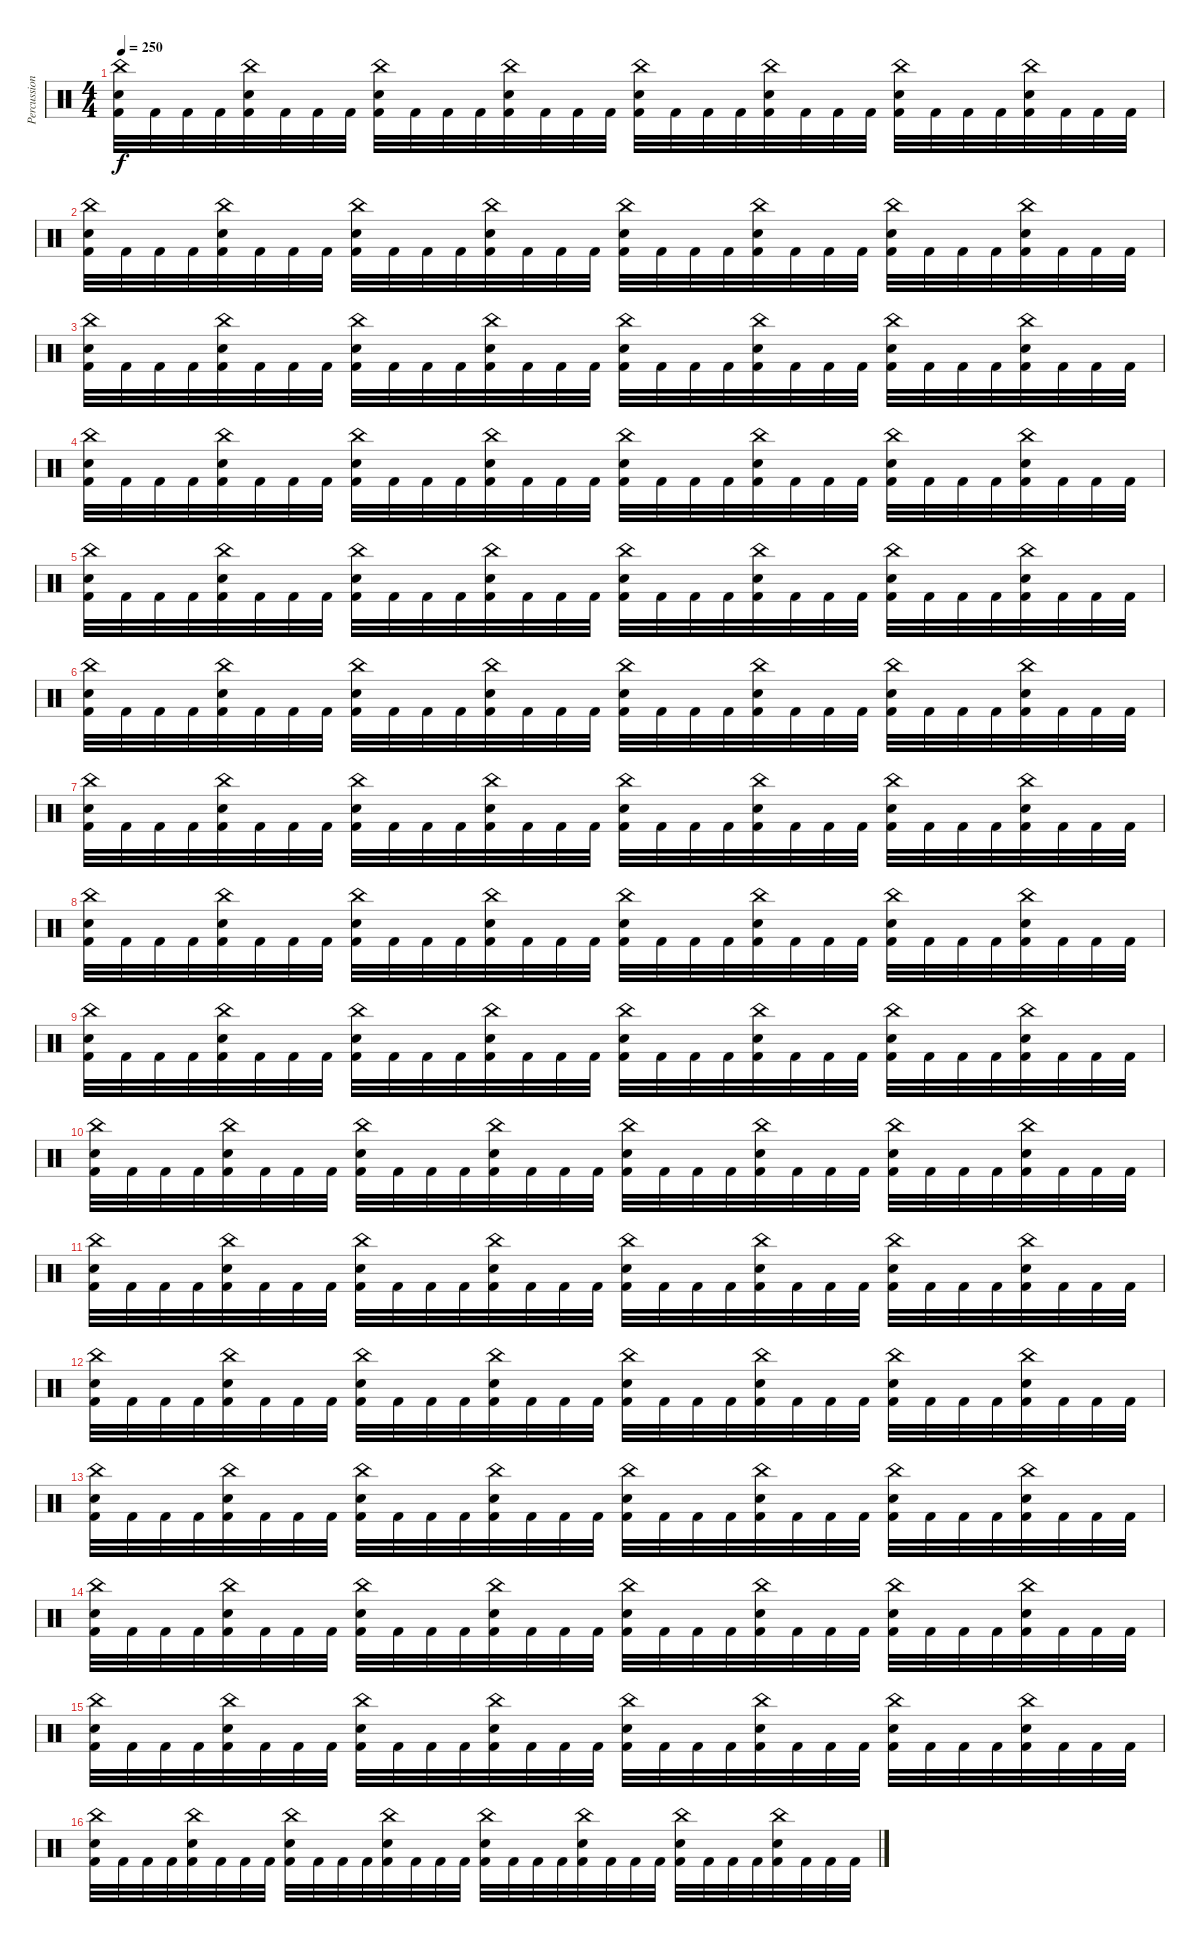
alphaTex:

\track ("Percussions" "Percussion") {instrument percussion}
\staff {score}
\articulation defaults
\ts (4 4)
\tempo 250
\clef neutral
\ks c
("China (hit)" "Electric Snare (hit)" "Kick (hit) 2").32{dy f} "Kick (hit) 2".32 "Kick (hit) 2".32 "Kick (hit) 2".32 ("China (hit)" "Electric Snare (hit)" "Kick (hit) 2").32 "Kick (hit) 2".32 "Kick (hit) 2".32 "Kick (hit) 2".32 ("China (hit)" "Electric Snare (hit)" "Kick (hit) 2").32 "Kick (hit) 2".32 "Kick (hit) 2".32 "Kick (hit) 2".32 ("China (hit)" "Electric Snare (hit)" "Kick (hit) 2").32 "Kick (hit) 2".32 "Kick (hit) 2".32 "Kick (hit) 2".32 ("China (hit)" "Electric Snare (hit)" "Kick (hit) 2").32 "Kick (hit) 2".32 "Kick (hit) 2".32 "Kick (hit) 2".32 ("China (hit)" "Electric Snare (hit)" "Kick (hit) 2").32 "Kick (hit) 2".32 "Kick (hit) 2".32 "Kick (hit) 2".32 ("China (hit)" "Electric Snare (hit)" "Kick (hit) 2").32 "Kick (hit) 2".32 "Kick (hit) 2".32 "Kick (hit) 2".32 ("China (hit)" "Electric Snare (hit)" "Kick (hit) 2").32 "Kick (hit) 2".32 "Kick (hit) 2".32 "Kick (hit) 2".32 |
("China (hit)" "Electric Snare (hit)" "Kick (hit) 2").32 "Kick (hit) 2".32 "Kick (hit) 2".32 "Kick (hit) 2".32 ("China (hit)" "Electric Snare (hit)" "Kick (hit) 2").32 "Kick (hit) 2".32 "Kick (hit) 2".32 "Kick (hit) 2".32 ("China (hit)" "Electric Snare (hit)" "Kick (hit) 2").32 "Kick (hit) 2".32 "Kick (hit) 2".32 "Kick (hit) 2".32 ("China (hit)" "Electric Snare (hit)" "Kick (hit) 2").32 "Kick (hit) 2".32 "Kick (hit) 2".32 "Kick (hit) 2".32 ("China (hit)" "Electric Snare (hit)" "Kick (hit) 2").32 "Kick (hit) 2".32 "Kick (hit) 2".32 "Kick (hit) 2".32 ("China (hit)" "Electric Snare (hit)" "Kick (hit) 2").32 "Kick (hit) 2".32 "Kick (hit) 2".32 "Kick (hit) 2".32 ("China (hit)" "Electric Snare (hit)" "Kick (hit) 2").32 "Kick (hit) 2".32 "Kick (hit) 2".32 "Kick (hit) 2".32 ("China (hit)" "Electric Snare (hit)" "Kick (hit) 2").32 "Kick (hit) 2".32 "Kick (hit) 2".32 "Kick (hit) 2".32 |
("China (hit)" "Electric Snare (hit)" "Kick (hit) 2").32 "Kick (hit) 2".32 "Kick (hit) 2".32 "Kick (hit) 2".32 ("China (hit)" "Electric Snare (hit)" "Kick (hit) 2").32 "Kick (hit) 2".32 "Kick (hit) 2".32 "Kick (hit) 2".32 ("China (hit)" "Electric Snare (hit)" "Kick (hit) 2").32 "Kick (hit) 2".32 "Kick (hit) 2".32 "Kick (hit) 2".32 ("China (hit)" "Electric Snare (hit)" "Kick (hit) 2").32 "Kick (hit) 2".32 "Kick (hit) 2".32 "Kick (hit) 2".32 ("China (hit)" "Electric Snare (hit)" "Kick (hit) 2").32 "Kick (hit) 2".32 "Kick (hit) 2".32 "Kick (hit) 2".32 ("China (hit)" "Electric Snare (hit)" "Kick (hit) 2").32 "Kick (hit) 2".32 "Kick (hit) 2".32 "Kick (hit) 2".32 ("China (hit)" "Electric Snare (hit)" "Kick (hit) 2").32 "Kick (hit) 2".32 "Kick (hit) 2".32 "Kick (hit) 2".32 ("China (hit)" "Electric Snare (hit)" "Kick (hit) 2").32 "Kick (hit) 2".32 "Kick (hit) 2".32 "Kick (hit) 2".32 |
("China (hit)" "Electric Snare (hit)" "Kick (hit) 2").32 "Kick (hit) 2".32 "Kick (hit) 2".32 "Kick (hit) 2".32 ("China (hit)" "Electric Snare (hit)" "Kick (hit) 2").32 "Kick (hit) 2".32 "Kick (hit) 2".32 "Kick (hit) 2".32 ("China (hit)" "Electric Snare (hit)" "Kick (hit) 2").32 "Kick (hit) 2".32 "Kick (hit) 2".32 "Kick (hit) 2".32 ("China (hit)" "Electric Snare (hit)" "Kick (hit) 2").32 "Kick (hit) 2".32 "Kick (hit) 2".32 "Kick (hit) 2".32 ("China (hit)" "Electric Snare (hit)" "Kick (hit) 2").32 "Kick (hit) 2".32 "Kick (hit) 2".32 "Kick (hit) 2".32 ("China (hit)" "Electric Snare (hit)" "Kick (hit) 2").32 "Kick (hit) 2".32 "Kick (hit) 2".32 "Kick (hit) 2".32 ("China (hit)" "Electric Snare (hit)" "Kick (hit) 2").32 "Kick (hit) 2".32 "Kick (hit) 2".32 "Kick (hit) 2".32 ("China (hit)" "Electric Snare (hit)" "Kick (hit) 2").32 "Kick (hit) 2".32 "Kick (hit) 2".32 "Kick (hit) 2".32 |
("China (hit)" "Electric Snare (hit)" "Kick (hit) 2").32 "Kick (hit) 2".32 "Kick (hit) 2".32 "Kick (hit) 2".32 ("China (hit)" "Electric Snare (hit)" "Kick (hit) 2").32 "Kick (hit) 2".32 "Kick (hit) 2".32 "Kick (hit) 2".32 ("China (hit)" "Electric Snare (hit)" "Kick (hit) 2").32 "Kick (hit) 2".32 "Kick (hit) 2".32 "Kick (hit) 2".32 ("China (hit)" "Electric Snare (hit)" "Kick (hit) 2").32 "Kick (hit) 2".32 "Kick (hit) 2".32 "Kick (hit) 2".32 ("China (hit)" "Electric Snare (hit)" "Kick (hit) 2").32 "Kick (hit) 2".32 "Kick (hit) 2".32 "Kick (hit) 2".32 ("China (hit)" "Electric Snare (hit)" "Kick (hit) 2").32 "Kick (hit) 2".32 "Kick (hit) 2".32 "Kick (hit) 2".32 ("China (hit)" "Electric Snare (hit)" "Kick (hit) 2").32 "Kick (hit) 2".32 "Kick (hit) 2".32 "Kick (hit) 2".32 ("China (hit)" "Electric Snare (hit)" "Kick (hit) 2").32 "Kick (hit) 2".32 "Kick (hit) 2".32 "Kick (hit) 2".32 |
("China (hit)" "Electric Snare (hit)" "Kick (hit) 2").32 "Kick (hit) 2".32 "Kick (hit) 2".32 "Kick (hit) 2".32 ("China (hit)" "Electric Snare (hit)" "Kick (hit) 2").32 "Kick (hit) 2".32 "Kick (hit) 2".32 "Kick (hit) 2".32 ("China (hit)" "Electric Snare (hit)" "Kick (hit) 2").32 "Kick (hit) 2".32 "Kick (hit) 2".32 "Kick (hit) 2".32 ("China (hit)" "Electric Snare (hit)" "Kick (hit) 2").32 "Kick (hit) 2".32 "Kick (hit) 2".32 "Kick (hit) 2".32 ("China (hit)" "Electric Snare (hit)" "Kick (hit) 2").32 "Kick (hit) 2".32 "Kick (hit) 2".32 "Kick (hit) 2".32 ("China (hit)" "Electric Snare (hit)" "Kick (hit) 2").32 "Kick (hit) 2".32 "Kick (hit) 2".32 "Kick (hit) 2".32 ("China (hit)" "Electric Snare (hit)" "Kick (hit) 2").32 "Kick (hit) 2".32 "Kick (hit) 2".32 "Kick (hit) 2".32 ("China (hit)" "Electric Snare (hit)" "Kick (hit) 2").32 "Kick (hit) 2".32 "Kick (hit) 2".32 "Kick (hit) 2".32 |
("China (hit)" "Electric Snare (hit)" "Kick (hit) 2").32 "Kick (hit) 2".32 "Kick (hit) 2".32 "Kick (hit) 2".32 ("China (hit)" "Electric Snare (hit)" "Kick (hit) 2").32 "Kick (hit) 2".32 "Kick (hit) 2".32 "Kick (hit) 2".32 ("China (hit)" "Electric Snare (hit)" "Kick (hit) 2").32 "Kick (hit) 2".32 "Kick (hit) 2".32 "Kick (hit) 2".32 ("China (hit)" "Electric Snare (hit)" "Kick (hit) 2").32 "Kick (hit) 2".32 "Kick (hit) 2".32 "Kick (hit) 2".32 ("China (hit)" "Electric Snare (hit)" "Kick (hit) 2").32 "Kick (hit) 2".32 "Kick (hit) 2".32 "Kick (hit) 2".32 ("China (hit)" "Electric Snare (hit)" "Kick (hit) 2").32 "Kick (hit) 2".32 "Kick (hit) 2".32 "Kick (hit) 2".32 ("China (hit)" "Electric Snare (hit)" "Kick (hit) 2").32 "Kick (hit) 2".32 "Kick (hit) 2".32 "Kick (hit) 2".32 ("China (hit)" "Electric Snare (hit)" "Kick (hit) 2").32 "Kick (hit) 2".32 "Kick (hit) 2".32 "Kick (hit) 2".32 |
("China (hit)" "Electric Snare (hit)" "Kick (hit) 2").32 "Kick (hit) 2".32 "Kick (hit) 2".32 "Kick (hit) 2".32 ("China (hit)" "Electric Snare (hit)" "Kick (hit) 2").32 "Kick (hit) 2".32 "Kick (hit) 2".32 "Kick (hit) 2".32 ("China (hit)" "Electric Snare (hit)" "Kick (hit) 2").32 "Kick (hit) 2".32 "Kick (hit) 2".32 "Kick (hit) 2".32 ("China (hit)" "Electric Snare (hit)" "Kick (hit) 2").32 "Kick (hit) 2".32 "Kick (hit) 2".32 "Kick (hit) 2".32 ("China (hit)" "Electric Snare (hit)" "Kick (hit) 2").32 "Kick (hit) 2".32 "Kick (hit) 2".32 "Kick (hit) 2".32 ("China (hit)" "Electric Snare (hit)" "Kick (hit) 2").32 "Kick (hit) 2".32 "Kick (hit) 2".32 "Kick (hit) 2".32 ("China (hit)" "Electric Snare (hit)" "Kick (hit) 2").32 "Kick (hit) 2".32 "Kick (hit) 2".32 "Kick (hit) 2".32 ("China (hit)" "Electric Snare (hit)" "Kick (hit) 2").32 "Kick (hit) 2".32 "Kick (hit) 2".32 "Kick (hit) 2".32 |
("China (hit)" "Electric Snare (hit)" "Kick (hit) 2").32 "Kick (hit) 2".32 "Kick (hit) 2".32 "Kick (hit) 2".32 ("China (hit)" "Electric Snare (hit)" "Kick (hit) 2").32 "Kick (hit) 2".32 "Kick (hit) 2".32 "Kick (hit) 2".32 ("China (hit)" "Electric Snare (hit)" "Kick (hit) 2").32 "Kick (hit) 2".32 "Kick (hit) 2".32 "Kick (hit) 2".32 ("China (hit)" "Electric Snare (hit)" "Kick (hit) 2").32 "Kick (hit) 2".32 "Kick (hit) 2".32 "Kick (hit) 2".32 ("China (hit)" "Electric Snare (hit)" "Kick (hit) 2").32 "Kick (hit) 2".32 "Kick (hit) 2".32 "Kick (hit) 2".32 ("China (hit)" "Electric Snare (hit)" "Kick (hit) 2").32 "Kick (hit) 2".32 "Kick (hit) 2".32 "Kick (hit) 2".32 ("China (hit)" "Electric Snare (hit)" "Kick (hit) 2").32 "Kick (hit) 2".32 "Kick (hit) 2".32 "Kick (hit) 2".32 ("China (hit)" "Electric Snare (hit)" "Kick (hit) 2").32 "Kick (hit) 2".32 "Kick (hit) 2".32 "Kick (hit) 2".32 |
("China (hit)" "Electric Snare (hit)" "Kick (hit) 2").32 "Kick (hit) 2".32 "Kick (hit) 2".32 "Kick (hit) 2".32 ("China (hit)" "Electric Snare (hit)" "Kick (hit) 2").32 "Kick (hit) 2".32 "Kick (hit) 2".32 "Kick (hit) 2".32 ("China (hit)" "Electric Snare (hit)" "Kick (hit) 2").32 "Kick (hit) 2".32 "Kick (hit) 2".32 "Kick (hit) 2".32 ("China (hit)" "Electric Snare (hit)" "Kick (hit) 2").32 "Kick (hit) 2".32 "Kick (hit) 2".32 "Kick (hit) 2".32 ("China (hit)" "Electric Snare (hit)" "Kick (hit) 2").32 "Kick (hit) 2".32 "Kick (hit) 2".32 "Kick (hit) 2".32 ("China (hit)" "Electric Snare (hit)" "Kick (hit) 2").32 "Kick (hit) 2".32 "Kick (hit) 2".32 "Kick (hit) 2".32 ("China (hit)" "Electric Snare (hit)" "Kick (hit) 2").32 "Kick (hit) 2".32 "Kick (hit) 2".32 "Kick (hit) 2".32 ("China (hit)" "Electric Snare (hit)" "Kick (hit) 2").32 "Kick (hit) 2".32 "Kick (hit) 2".32 "Kick (hit) 2".32 |
("China (hit)" "Electric Snare (hit)" "Kick (hit) 2").32 "Kick (hit) 2".32 "Kick (hit) 2".32 "Kick (hit) 2".32 ("China (hit)" "Electric Snare (hit)" "Kick (hit) 2").32 "Kick (hit) 2".32 "Kick (hit) 2".32 "Kick (hit) 2".32 ("China (hit)" "Electric Snare (hit)" "Kick (hit) 2").32 "Kick (hit) 2".32 "Kick (hit) 2".32 "Kick (hit) 2".32 ("China (hit)" "Electric Snare (hit)" "Kick (hit) 2").32 "Kick (hit) 2".32 "Kick (hit) 2".32 "Kick (hit) 2".32 ("China (hit)" "Electric Snare (hit)" "Kick (hit) 2").32 "Kick (hit) 2".32 "Kick (hit) 2".32 "Kick (hit) 2".32 ("China (hit)" "Electric Snare (hit)" "Kick (hit) 2").32 "Kick (hit) 2".32 "Kick (hit) 2".32 "Kick (hit) 2".32 ("China (hit)" "Electric Snare (hit)" "Kick (hit) 2").32 "Kick (hit) 2".32 "Kick (hit) 2".32 "Kick (hit) 2".32 ("China (hit)" "Electric Snare (hit)" "Kick (hit) 2").32 "Kick (hit) 2".32 "Kick (hit) 2".32 "Kick (hit) 2".32 |
("China (hit)" "Electric Snare (hit)" "Kick (hit) 2").32 "Kick (hit) 2".32 "Kick (hit) 2".32 "Kick (hit) 2".32 ("China (hit)" "Electric Snare (hit)" "Kick (hit) 2").32 "Kick (hit) 2".32 "Kick (hit) 2".32 "Kick (hit) 2".32 ("China (hit)" "Electric Snare (hit)" "Kick (hit) 2").32 "Kick (hit) 2".32 "Kick (hit) 2".32 "Kick (hit) 2".32 ("China (hit)" "Electric Snare (hit)" "Kick (hit) 2").32 "Kick (hit) 2".32 "Kick (hit) 2".32 "Kick (hit) 2".32 ("China (hit)" "Electric Snare (hit)" "Kick (hit) 2").32 "Kick (hit) 2".32 "Kick (hit) 2".32 "Kick (hit) 2".32 ("China (hit)" "Electric Snare (hit)" "Kick (hit) 2").32 "Kick (hit) 2".32 "Kick (hit) 2".32 "Kick (hit) 2".32 ("China (hit)" "Electric Snare (hit)" "Kick (hit) 2").32 "Kick (hit) 2".32 "Kick (hit) 2".32 "Kick (hit) 2".32 ("China (hit)" "Electric Snare (hit)" "Kick (hit) 2").32 "Kick (hit) 2".32 "Kick (hit) 2".32 "Kick (hit) 2".32 |
("China (hit)" "Electric Snare (hit)" "Kick (hit) 2").32 "Kick (hit) 2".32 "Kick (hit) 2".32 "Kick (hit) 2".32 ("China (hit)" "Electric Snare (hit)" "Kick (hit) 2").32 "Kick (hit) 2".32 "Kick (hit) 2".32 "Kick (hit) 2".32 ("China (hit)" "Electric Snare (hit)" "Kick (hit) 2").32 "Kick (hit) 2".32 "Kick (hit) 2".32 "Kick (hit) 2".32 ("China (hit)" "Electric Snare (hit)" "Kick (hit) 2").32 "Kick (hit) 2".32 "Kick (hit) 2".32 "Kick (hit) 2".32 ("China (hit)" "Electric Snare (hit)" "Kick (hit) 2").32 "Kick (hit) 2".32 "Kick (hit) 2".32 "Kick (hit) 2".32 ("China (hit)" "Electric Snare (hit)" "Kick (hit) 2").32 "Kick (hit) 2".32 "Kick (hit) 2".32 "Kick (hit) 2".32 ("China (hit)" "Electric Snare (hit)" "Kick (hit) 2").32 "Kick (hit) 2".32 "Kick (hit) 2".32 "Kick (hit) 2".32 ("China (hit)" "Electric Snare (hit)" "Kick (hit) 2").32 "Kick (hit) 2".32 "Kick (hit) 2".32 "Kick (hit) 2".32 |
("China (hit)" "Electric Snare (hit)" "Kick (hit) 2").32 "Kick (hit) 2".32 "Kick (hit) 2".32 "Kick (hit) 2".32 ("China (hit)" "Electric Snare (hit)" "Kick (hit) 2").32 "Kick (hit) 2".32 "Kick (hit) 2".32 "Kick (hit) 2".32 ("China (hit)" "Electric Snare (hit)" "Kick (hit) 2").32 "Kick (hit) 2".32 "Kick (hit) 2".32 "Kick (hit) 2".32 ("China (hit)" "Electric Snare (hit)" "Kick (hit) 2").32 "Kick (hit) 2".32 "Kick (hit) 2".32 "Kick (hit) 2".32 ("China (hit)" "Electric Snare (hit)" "Kick (hit) 2").32 "Kick (hit) 2".32 "Kick (hit) 2".32 "Kick (hit) 2".32 ("China (hit)" "Electric Snare (hit)" "Kick (hit) 2").32 "Kick (hit) 2".32 "Kick (hit) 2".32 "Kick (hit) 2".32 ("China (hit)" "Electric Snare (hit)" "Kick (hit) 2").32 "Kick (hit) 2".32 "Kick (hit) 2".32 "Kick (hit) 2".32 ("China (hit)" "Electric Snare (hit)" "Kick (hit) 2").32 "Kick (hit) 2".32 "Kick (hit) 2".32 "Kick (hit) 2".32 |
("China (hit)" "Electric Snare (hit)" "Kick (hit) 2").32 "Kick (hit) 2".32 "Kick (hit) 2".32 "Kick (hit) 2".32 ("China (hit)" "Electric Snare (hit)" "Kick (hit) 2").32 "Kick (hit) 2".32 "Kick (hit) 2".32 "Kick (hit) 2".32 ("China (hit)" "Electric Snare (hit)" "Kick (hit) 2").32 "Kick (hit) 2".32 "Kick (hit) 2".32 "Kick (hit) 2".32 ("China (hit)" "Electric Snare (hit)" "Kick (hit) 2").32 "Kick (hit) 2".32 "Kick (hit) 2".32 "Kick (hit) 2".32 ("China (hit)" "Electric Snare (hit)" "Kick (hit) 2").32 "Kick (hit) 2".32 "Kick (hit) 2".32 "Kick (hit) 2".32 ("China (hit)" "Electric Snare (hit)" "Kick (hit) 2").32 "Kick (hit) 2".32 "Kick (hit) 2".32 "Kick (hit) 2".32 ("China (hit)" "Electric Snare (hit)" "Kick (hit) 2").32 "Kick (hit) 2".32 "Kick (hit) 2".32 "Kick (hit) 2".32 ("China (hit)" "Electric Snare (hit)" "Kick (hit) 2").32 "Kick (hit) 2".32 "Kick (hit) 2".32 "Kick (hit) 2".32 |
("China (hit)" "Electric Snare (hit)" "Kick (hit) 2").32 "Kick (hit) 2".32 "Kick (hit) 2".32 "Kick (hit) 2".32 ("China (hit)" "Electric Snare (hit)" "Kick (hit) 2").32 "Kick (hit) 2".32 "Kick (hit) 2".32 "Kick (hit) 2".32 ("China (hit)" "Electric Snare (hit)" "Kick (hit) 2").32 "Kick (hit) 2".32 "Kick (hit) 2".32 "Kick (hit) 2".32 ("China (hit)" "Electric Snare (hit)" "Kick (hit) 2").32 "Kick (hit) 2".32 "Kick (hit) 2".32 "Kick (hit) 2".32 ("China (hit)" "Electric Snare (hit)" "Kick (hit) 2").32 "Kick (hit) 2".32 "Kick (hit) 2".32 "Kick (hit) 2".32 ("China (hit)" "Electric Snare (hit)" "Kick (hit) 2").32 "Kick (hit) 2".32 "Kick (hit) 2".32 "Kick (hit) 2".32 ("China (hit)" "Electric Snare (hit)" "Kick (hit) 2").32 "Kick (hit) 2".32 "Kick (hit) 2".32 "Kick (hit) 2".32 ("China (hit)" "Electric Snare (hit)" "Kick (hit) 2").32 "Kick (hit) 2".32 "Kick (hit) 2".32 "Kick (hit) 2".32
